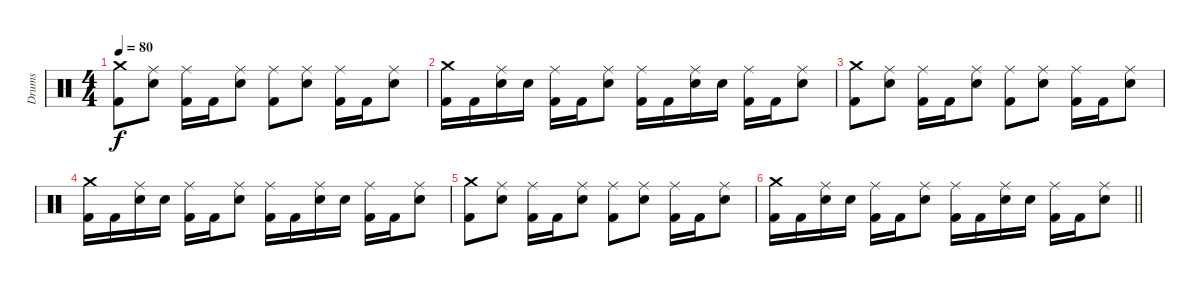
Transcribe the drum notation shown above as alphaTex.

\track ("Drums" "Drums") {instrument percussion}
\staff {score}
\articulation defaults
\ts (4 4)
\tempo 80
\clef neutral
\ks c
("Crash medium (hit)" "Kick (hit) 2").8{dy f} ("Ride (middle)" "Snare (hit) 2").8 ("Ride (middle)" "Kick (hit) 2").16 "Kick (hit) 2".16 ("Ride (middle)" "Snare (hit) 2").8 ("Ride (middle)" "Kick (hit) 2").8 ("Ride (middle)" "Snare (hit) 2").8 ("Ride (middle)" "Kick (hit) 2").16 "Kick (hit) 2".16 ("Ride (middle)" "Snare (hit) 2").8 |
("Crash medium (hit)" "Kick (hit) 2").16 "Kick (hit) 2".16 ("Ride (middle)" "Snare (hit) 2").16 "Snare (hit) 2".16 ("Ride (middle)" "Kick (hit) 2").16 "Kick (hit) 2".16 ("Ride (middle)" "Snare (hit) 2").8 ("Ride (middle)" "Kick (hit) 2").16 "Kick (hit) 2".16 ("Ride (middle)" "Snare (hit) 2").16 "Snare (hit) 2".16 ("Ride (middle)" "Kick (hit) 2").16 "Kick (hit) 2".16 ("Ride (middle)" "Snare (hit) 2").8 |
("Crash medium (hit)" "Kick (hit) 2").8 ("Ride (middle)" "Snare (hit) 2").8 ("Ride (middle)" "Kick (hit) 2").16 "Kick (hit) 2".16 ("Ride (middle)" "Snare (hit) 2").8 ("Ride (middle)" "Kick (hit) 2").8 ("Ride (middle)" "Snare (hit) 2").8 ("Ride (middle)" "Kick (hit) 2").16 "Kick (hit) 2".16 ("Ride (middle)" "Snare (hit) 2").8 |
("Crash medium (hit)" "Kick (hit) 2").16 "Kick (hit) 2".16 ("Ride (middle)" "Snare (hit) 2").16 "Snare (hit) 2".16 ("Ride (middle)" "Kick (hit) 2").16 "Kick (hit) 2".16 ("Ride (middle)" "Snare (hit) 2").8 ("Ride (middle)" "Kick (hit) 2").16 "Kick (hit) 2".16 ("Ride (middle)" "Snare (hit) 2").16 "Snare (hit) 2".16 ("Ride (middle)" "Kick (hit) 2").16 "Kick (hit) 2".16 ("Ride (middle)" "Snare (hit) 2").8 |
("Crash medium (hit)" "Kick (hit) 2").8 ("Ride (middle)" "Snare (hit) 2").8 ("Ride (middle)" "Kick (hit) 2").16 "Kick (hit) 2".16 ("Ride (middle)" "Snare (hit) 2").8 ("Ride (middle)" "Kick (hit) 2").8 ("Ride (middle)" "Snare (hit) 2").8 ("Ride (middle)" "Kick (hit) 2").16 "Kick (hit) 2".16 ("Ride (middle)" "Snare (hit) 2").8 |
\barLineRight lightlight
("Crash medium (hit)" "Kick (hit) 2").16 "Kick (hit) 2".16 ("Ride (middle)" "Snare (hit) 2").16 "Snare (hit) 2".16 ("Ride (middle)" "Kick (hit) 2").16 "Kick (hit) 2".16 ("Ride (middle)" "Snare (hit) 2").8 ("Ride (middle)" "Kick (hit) 2").16 "Kick (hit) 2".16 ("Ride (middle)" "Snare (hit) 2").16 "Snare (hit) 2".16 ("Ride (middle)" "Kick (hit) 2").16 "Kick (hit) 2".16 ("Ride (middle)" "Snare (hit) 2").8
